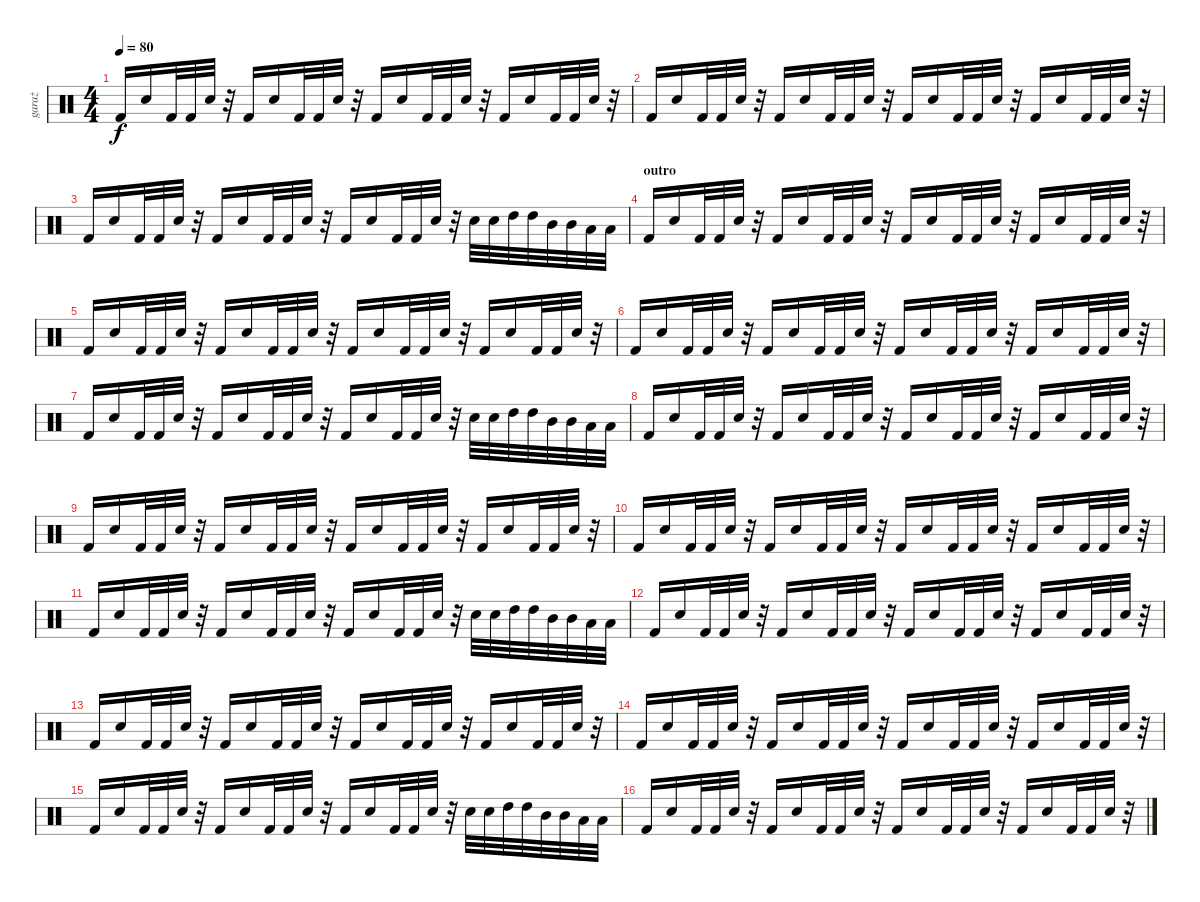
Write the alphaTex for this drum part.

\track ("garaż" "garaż") {instrument percussion}
\staff {score}
\articulation defaults
\ts (4 4)
\tempo 80
\clef neutral
\ks c "Kick (hit) 2".16{dy f} "Snare (hit) 2".16 "Kick (hit) 2".32 "Kick (hit) 2".32 "Snare (hit) 2".32
r.32 "Kick (hit) 2".16 "Snare (hit) 2".16 "Kick (hit) 2".32 "Kick (hit) 2".32 "Snare (hit) 2".32 r.32 "Kick (hit) 2".16 "Snare (hit) 2".16 "Kick (hit) 2".32 "Kick (hit) 2".32 "Snare (hit) 2".32 r.32 "Kick (hit) 2".16 "Snare (hit) 2".16 "Kick (hit) 2".32 "Kick (hit) 2".32 "Snare (hit) 2".32 r.32 |
"Kick (hit) 2".16 "Snare (hit) 2".16 "Kick (hit) 2".32 "Kick (hit) 2".32 "Snare (hit) 2".32 r.32 "Kick (hit) 2".16 "Snare (hit) 2".16 "Kick (hit) 2".32 "Kick (hit) 2".32 "Snare (hit) 2".32 r.32 "Kick (hit) 2".16 "Snare (hit) 2".16 "Kick (hit) 2".32 "Kick (hit) 2".32 "Snare (hit) 2".32 r.32 "Kick (hit) 2".16 "Snare (hit) 2".16 "Kick (hit) 2".32 "Kick (hit) 2".32 "Snare (hit) 2".32 r.32 |
"Kick (hit) 2".16 "Snare (hit) 2".16 "Kick (hit) 2".32 "Kick (hit) 2".32 "Snare (hit) 2".32 r.32 "Kick (hit) 2".16 "Snare (hit) 2".16 "Kick (hit) 2".32 "Kick (hit) 2".32 "Snare (hit) 2".32 r.32 "Kick (hit) 2".16 "Snare (hit) 2".16 "Kick (hit) 2".32 "Kick (hit) 2".32 "Snare (hit) 2".32 r.32 "Snare (hit) 2".32 "Snare (hit) 2".32 "High Tom (hit)".32 "High Tom (hit)".32 "Mid Tom (hit)".32 "Mid Tom (hit)".32 "Low Tom (hit)".32 "Low Tom (hit)".32 |
\section ("" "outro")
"Kick (hit) 2".16 "Snare (hit) 2".16 "Kick (hit) 2".32 "Kick (hit) 2".32 "Snare (hit) 2".32 r.32 "Kick (hit) 2".16 "Snare (hit) 2".16 "Kick (hit) 2".32 "Kick (hit) 2".32 "Snare (hit) 2".32 r.32 "Kick (hit) 2".16 "Snare (hit) 2".16 "Kick (hit) 2".32 "Kick (hit) 2".32 "Snare (hit) 2".32 r.32 "Kick (hit) 2".16 "Snare (hit) 2".16 "Kick (hit) 2".32 "Kick (hit) 2".32 "Snare (hit) 2".32 r.32 |
"Kick (hit) 2".16 "Snare (hit) 2".16 "Kick (hit) 2".32 "Kick (hit) 2".32 "Snare (hit) 2".32 r.32 "Kick (hit) 2".16 "Snare (hit) 2".16 "Kick (hit) 2".32 "Kick (hit) 2".32 "Snare (hit) 2".32 r.32 "Kick (hit) 2".16 "Snare (hit) 2".16 "Kick (hit) 2".32 "Kick (hit) 2".32 "Snare (hit) 2".32 r.32 "Kick (hit) 2".16 "Snare (hit) 2".16 "Kick (hit) 2".32 "Kick (hit) 2".32 "Snare (hit) 2".32 r.32 |
"Kick (hit) 2".16 "Snare (hit) 2".16 "Kick (hit) 2".32 "Kick (hit) 2".32 "Snare (hit) 2".32 r.32 "Kick (hit) 2".16 "Snare (hit) 2".16 "Kick (hit) 2".32 "Kick (hit) 2".32 "Snare (hit) 2".32 r.32 "Kick (hit) 2".16 "Snare (hit) 2".16 "Kick (hit) 2".32 "Kick (hit) 2".32 "Snare (hit) 2".32 r.32 "Kick (hit) 2".16 "Snare (hit) 2".16 "Kick (hit) 2".32 "Kick (hit) 2".32 "Snare (hit) 2".32 r.32 |
"Kick (hit) 2".16 "Snare (hit) 2".16 "Kick (hit) 2".32 "Kick (hit) 2".32 "Snare (hit) 2".32 r.32 "Kick (hit) 2".16 "Snare (hit) 2".16 "Kick (hit) 2".32 "Kick (hit) 2".32 "Snare (hit) 2".32 r.32 "Kick (hit) 2".16 "Snare (hit) 2".16 "Kick (hit) 2".32 "Kick (hit) 2".32 "Snare (hit) 2".32 r.32 "Snare (hit) 2".32 "Snare (hit) 2".32 "High Tom (hit)".32 "High Tom (hit)".32 "Mid Tom (hit)".32 "Mid Tom (hit)".32 "Low Tom (hit)".32 "Low Tom (hit)".32 |
"Kick (hit) 2".16 "Snare (hit) 2".16 "Kick (hit) 2".32 "Kick (hit) 2".32 "Snare (hit) 2".32 r.32 "Kick (hit) 2".16 "Snare (hit) 2".16 "Kick (hit) 2".32 "Kick (hit) 2".32 "Snare (hit) 2".32 r.32 "Kick (hit) 2".16 "Snare (hit) 2".16 "Kick (hit) 2".32 "Kick (hit) 2".32 "Snare (hit) 2".32 r.32 "Kick (hit) 2".16 "Snare (hit) 2".16 "Kick (hit) 2".32 "Kick (hit) 2".32 "Snare (hit) 2".32 r.32 |
"Kick (hit) 2".16 "Snare (hit) 2".16 "Kick (hit) 2".32 "Kick (hit) 2".32 "Snare (hit) 2".32 r.32 "Kick (hit) 2".16 "Snare (hit) 2".16 "Kick (hit) 2".32 "Kick (hit) 2".32 "Snare (hit) 2".32 r.32 "Kick (hit) 2".16 "Snare (hit) 2".16 "Kick (hit) 2".32 "Kick (hit) 2".32 "Snare (hit) 2".32 r.32 "Kick (hit) 2".16 "Snare (hit) 2".16 "Kick (hit) 2".32 "Kick (hit) 2".32 "Snare (hit) 2".32 r.32 |
"Kick (hit) 2".16 "Snare (hit) 2".16 "Kick (hit) 2".32 "Kick (hit) 2".32 "Snare (hit) 2".32 r.32 "Kick (hit) 2".16 "Snare (hit) 2".16 "Kick (hit) 2".32 "Kick (hit) 2".32 "Snare (hit) 2".32 r.32 "Kick (hit) 2".16 "Snare (hit) 2".16 "Kick (hit) 2".32 "Kick (hit) 2".32 "Snare (hit) 2".32 r.32 "Kick (hit) 2".16 "Snare (hit) 2".16 "Kick (hit) 2".32 "Kick (hit) 2".32 "Snare (hit) 2".32 r.32 |
"Kick (hit) 2".16 "Snare (hit) 2".16 "Kick (hit) 2".32 "Kick (hit) 2".32 "Snare (hit) 2".32 r.32 "Kick (hit) 2".16 "Snare (hit) 2".16 "Kick (hit) 2".32 "Kick (hit) 2".32 "Snare (hit) 2".32 r.32 "Kick (hit) 2".16 "Snare (hit) 2".16 "Kick (hit) 2".32 "Kick (hit) 2".32 "Snare (hit) 2".32 r.32 "Snare (hit) 2".32 "Snare (hit) 2".32 "High Tom (hit)".32 "High Tom (hit)".32 "Mid Tom (hit)".32 "Mid Tom (hit)".32 "Low Tom (hit)".32 "Low Tom (hit)".32 |
"Kick (hit) 2".16 "Snare (hit) 2".16 "Kick (hit) 2".32 "Kick (hit) 2".32 "Snare (hit) 2".32 r.32 "Kick (hit) 2".16 "Snare (hit) 2".16 "Kick (hit) 2".32 "Kick (hit) 2".32 "Snare (hit) 2".32 r.32 "Kick (hit) 2".16 "Snare (hit) 2".16 "Kick (hit) 2".32 "Kick (hit) 2".32 "Snare (hit) 2".32 r.32 "Kick (hit) 2".16 "Snare (hit) 2".16 "Kick (hit) 2".32 "Kick (hit) 2".32 "Snare (hit) 2".32 r.32 |
"Kick (hit) 2".16 "Snare (hit) 2".16 "Kick (hit) 2".32 "Kick (hit) 2".32 "Snare (hit) 2".32 r.32 "Kick (hit) 2".16 "Snare (hit) 2".16 "Kick (hit) 2".32 "Kick (hit) 2".32 "Snare (hit) 2".32 r.32 "Kick (hit) 2".16 "Snare (hit) 2".16 "Kick (hit) 2".32 "Kick (hit) 2".32 "Snare (hit) 2".32 r.32 "Kick (hit) 2".16 "Snare (hit) 2".16 "Kick (hit) 2".32 "Kick (hit) 2".32 "Snare (hit) 2".32 r.32 |
"Kick (hit) 2".16 "Snare (hit) 2".16 "Kick (hit) 2".32 "Kick (hit) 2".32 "Snare (hit) 2".32 r.32 "Kick (hit) 2".16 "Snare (hit) 2".16 "Kick (hit) 2".32 "Kick (hit) 2".32 "Snare (hit) 2".32 r.32 "Kick (hit) 2".16 "Snare (hit) 2".16 "Kick (hit) 2".32 "Kick (hit) 2".32 "Snare (hit) 2".32 r.32 "Kick (hit) 2".16 "Snare (hit) 2".16 "Kick (hit) 2".32 "Kick (hit) 2".32 "Snare (hit) 2".32 r.32 |
"Kick (hit) 2".16 "Snare (hit) 2".16 "Kick (hit) 2".32 "Kick (hit) 2".32 "Snare (hit) 2".32 r.32 "Kick (hit) 2".16 "Snare (hit) 2".16 "Kick (hit) 2".32 "Kick (hit) 2".32 "Snare (hit) 2".32 r.32 "Kick (hit) 2".16 "Snare (hit) 2".16 "Kick (hit) 2".32 "Kick (hit) 2".32 "Snare (hit) 2".32 r.32 "Snare (hit) 2".32 "Snare (hit) 2".32 "High Tom (hit)".32 "High Tom (hit)".32 "Mid Tom (hit)".32 "Mid Tom (hit)".32 "Low Tom (hit)".32 "Low Tom (hit)".32 |
"Kick (hit) 2".16 "Snare (hit) 2".16 "Kick (hit) 2".32 "Kick (hit) 2".32 "Snare (hit) 2".32 r.32 "Kick (hit) 2".16 "Snare (hit) 2".16 "Kick (hit) 2".32 "Kick (hit) 2".32 "Snare (hit) 2".32 r.32 "Kick (hit) 2".16 "Snare (hit) 2".16 "Kick (hit) 2".32 "Kick (hit) 2".32 "Snare (hit) 2".32 r.32 "Kick (hit) 2".16 "Snare (hit) 2".16 "Kick (hit) 2".32 "Kick (hit) 2".32 "Snare (hit) 2".32 r.32
